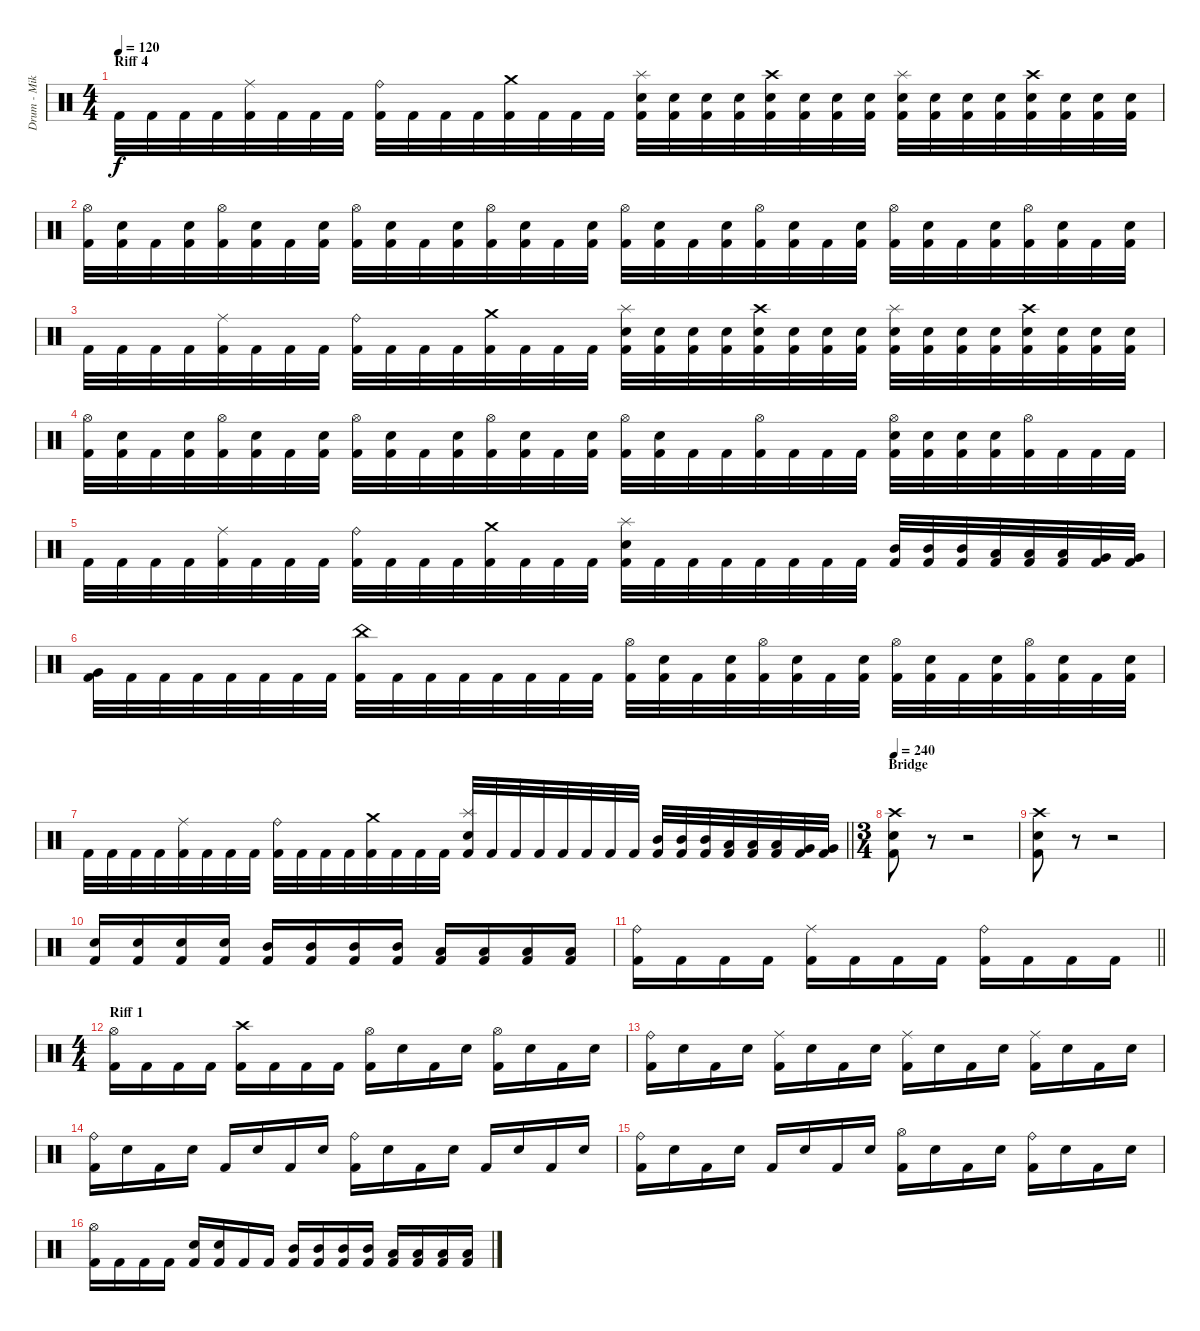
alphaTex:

\track ("Drum - Mike Collins" "Drum - Mik") {instrument percussion}
\staff {score}
\articulation defaults
\ts (4 4)
\section ("" "Riff 4")
\tempo 120
\clef neutral
\ks c "Kick (hit) 2".32{dy f} "Kick (hit) 2".32 "Kick (hit) 2".32 "Kick (hit) 2".32
("Ride (middle)" "Kick (hit) 2").32 "Kick (hit) 2".32 "Kick (hit) 2".32 "Kick (hit) 2".32 ("Ride (bell)" "Kick (hit) 2").32 "Kick (hit) 2".32 "Kick (hit) 2".32 "Kick (hit) 2".32 ("Crash medium (hit)" "Kick (hit) 2").32 "Kick (hit) 2".32 "Kick (hit) 2".32 "Kick (hit) 2".32 ("Splash (hit)" "Electric Snare (hit)" "Kick (hit) 2").32 ("Electric Snare (hit)" "Kick (hit) 2").32 ("Electric Snare (hit)" "Kick (hit) 2").32 ("Electric Snare (hit)" "Kick (hit) 2").32 ("Crash high (hit)" "Electric Snare (hit)" "Kick (hit) 2").32 ("Electric Snare (hit)" "Kick (hit) 2").32 ("Electric Snare (hit)" "Kick (hit) 2").32 ("Electric Snare (hit)" "Kick (hit) 2").32 ("Splash (hit)" "Electric Snare (hit)" "Kick (hit) 2").32 ("Electric Snare (hit)" "Kick (hit) 2").32 ("Electric Snare (hit)" "Kick (hit) 2").32 ("Electric Snare (hit)" "Kick (hit) 2").32 ("Crash high (hit)" "Electric Snare (hit)" "Kick (hit) 2").32 ("Electric Snare (hit)" "Kick (hit) 2").32 ("Electric Snare (hit)" "Kick (hit) 2").32 ("Electric Snare (hit)" "Kick (hit) 2").32 |
("Hi-Hat (open)" "Kick (hit) 2").32 ("Electric Snare (hit)" "Kick (hit) 2").32 "Kick (hit) 2".32 ("Electric Snare (hit)" "Kick (hit) 2").32 ("Hi-Hat (open)" "Kick (hit) 2").32 ("Electric Snare (hit)" "Kick (hit) 2").32 "Kick (hit) 2".32 ("Electric Snare (hit)" "Kick (hit) 2").32 ("Hi-Hat (open)" "Kick (hit) 2").32 ("Electric Snare (hit)" "Kick (hit) 2").32 "Kick (hit) 2".32 ("Electric Snare (hit)" "Kick (hit) 2").32 ("Hi-Hat (open)" "Kick (hit) 2").32 ("Electric Snare (hit)" "Kick (hit) 2").32 "Kick (hit) 2".32 ("Electric Snare (hit)" "Kick (hit) 2").32 ("Hi-Hat (open)" "Kick (hit) 2").32 ("Electric Snare (hit)" "Kick (hit) 2").32 "Kick (hit) 2".32 ("Electric Snare (hit)" "Kick (hit) 2").32 ("Hi-Hat (open)" "Kick (hit) 2").32 ("Electric Snare (hit)" "Kick (hit) 2").32 "Kick (hit) 2".32 ("Electric Snare (hit)" "Kick (hit) 2").32 ("Hi-Hat (open)" "Kick (hit) 2").32 ("Electric Snare (hit)" "Kick (hit) 2").32 "Kick (hit) 2".32 ("Electric Snare (hit)" "Kick (hit) 2").32 ("Hi-Hat (open)" "Kick (hit) 2").32 ("Electric Snare (hit)" "Kick (hit) 2").32 "Kick (hit) 2".32 ("Electric Snare (hit)" "Kick (hit) 2").32 |
"Kick (hit) 2".32 "Kick (hit) 2".32 "Kick (hit) 2".32 "Kick (hit) 2".32 ("Ride (middle)" "Kick (hit) 2").32 "Kick (hit) 2".32 "Kick (hit) 2".32 "Kick (hit) 2".32 ("Ride (bell)" "Kick (hit) 2").32 "Kick (hit) 2".32 "Kick (hit) 2".32 "Kick (hit) 2".32 ("Crash medium (hit)" "Kick (hit) 2").32 "Kick (hit) 2".32 "Kick (hit) 2".32 "Kick (hit) 2".32 ("Splash (hit)" "Electric Snare (hit)" "Kick (hit) 2").32 ("Electric Snare (hit)" "Kick (hit) 2").32 ("Electric Snare (hit)" "Kick (hit) 2").32 ("Electric Snare (hit)" "Kick (hit) 2").32 ("Crash high (hit)" "Electric Snare (hit)" "Kick (hit) 2").32 ("Electric Snare (hit)" "Kick (hit) 2").32 ("Electric Snare (hit)" "Kick (hit) 2").32 ("Electric Snare (hit)" "Kick (hit) 2").32 ("Splash (hit)" "Electric Snare (hit)" "Kick (hit) 2").32 ("Electric Snare (hit)" "Kick (hit) 2").32 ("Electric Snare (hit)" "Kick (hit) 2").32 ("Electric Snare (hit)" "Kick (hit) 2").32 ("Crash high (hit)" "Electric Snare (hit)" "Kick (hit) 2").32 ("Electric Snare (hit)" "Kick (hit) 2").32 ("Electric Snare (hit)" "Kick (hit) 2").32 ("Electric Snare (hit)" "Kick (hit) 2").32 |
("Hi-Hat (open)" "Kick (hit) 2").32 ("Electric Snare (hit)" "Kick (hit) 2").32 "Kick (hit) 2".32 ("Electric Snare (hit)" "Kick (hit) 2").32 ("Hi-Hat (open)" "Kick (hit) 2").32 ("Electric Snare (hit)" "Kick (hit) 2").32 "Kick (hit) 2".32 ("Electric Snare (hit)" "Kick (hit) 2").32 ("Hi-Hat (open)" "Kick (hit) 2").32 ("Electric Snare (hit)" "Kick (hit) 2").32 "Kick (hit) 2".32 ("Electric Snare (hit)" "Kick (hit) 2").32 ("Hi-Hat (open)" "Kick (hit) 2").32 ("Electric Snare (hit)" "Kick (hit) 2").32 "Kick (hit) 2".32 ("Electric Snare (hit)" "Kick (hit) 2").32 ("Hi-Hat (open)" "Kick (hit) 2").32 ("Electric Snare (hit)" "Kick (hit) 2").32 "Kick (hit) 2".32 "Kick (hit) 2".32 ("Hi-Hat (open)" "Kick (hit) 2").32 "Kick (hit) 2".32 "Kick (hit) 2".32 "Kick (hit) 2".32 ("Hi-Hat (open)" "Electric Snare (hit)" "Kick (hit) 2").32 ("Electric Snare (hit)" "Kick (hit) 2").32 ("Electric Snare (hit)" "Kick (hit) 2").32 ("Electric Snare (hit)" "Kick (hit) 2").32 ("Hi-Hat (open)" "Kick (hit) 2").32 "Kick (hit) 2".32 "Kick (hit) 2".32 "Kick (hit) 2".32 |
"Kick (hit) 2".32 "Kick (hit) 2".32 "Kick (hit) 2".32 "Kick (hit) 2".32 ("Ride (middle)" "Kick (hit) 2").32 "Kick (hit) 2".32 "Kick (hit) 2".32 "Kick (hit) 2".32 ("Ride (bell)" "Kick (hit) 2").32 "Kick (hit) 2".32 "Kick (hit) 2".32 "Kick (hit) 2".32 ("Crash medium (hit)" "Kick (hit) 2").32 "Kick (hit) 2".32 "Kick (hit) 2".32 "Kick (hit) 2".32 ("Splash (hit)" "Electric Snare (hit)" "Kick (hit) 2").32{beam Down} "Kick (hit) 2".32{beam Down} "Kick (hit) 2".32{beam Down} "Kick (hit) 2".32{beam Down} "Kick (hit) 2".32{beam Down} "Kick (hit) 2".32{beam Down} "Kick (hit) 2".32{beam Down} "Kick (hit) 2".32{beam Down} ("Mid Tom (hit)" "Kick (hit) 2").32 ("Mid Tom (hit)" "Kick (hit) 2").32 ("Mid Tom (hit)" "Kick (hit) 2").32 ("Low Tom (hit)" "Kick (hit) 2").32 ("Low Tom (hit)" "Kick (hit) 2").32 ("Low Tom (hit)" "Kick (hit) 2").32 ("Very Low Tom (hit)" "Kick (hit) 2").32 ("Very Low Tom (hit)" "Kick (hit) 2").32 |
("Very Low Tom (hit)" "Kick (hit) 2").32{beam Down} "Kick (hit) 2".32{beam Down} "Kick (hit) 2".32{beam Down} "Kick (hit) 2".32{beam Down} "Kick (hit) 2".32{beam Down} "Kick (hit) 2".32{beam Down} "Kick (hit) 2".32{beam Down} "Kick (hit) 2".32{beam Down} ("China (hit)" "Kick (hit) 2").32 "Kick (hit) 2".32 "Kick (hit) 2".32 "Kick (hit) 2".32 "Kick (hit) 2".32 "Kick (hit) 2".32 "Kick (hit) 2".32 "Kick (hit) 2".32 ("Hi-Hat (open)" "Kick (hit) 2").32 ("Electric Snare (hit)" "Kick (hit) 2").32 "Kick (hit) 2".32 ("Electric Snare (hit)" "Kick (hit) 2").32 ("Hi-Hat (open)" "Kick (hit) 2").32 ("Electric Snare (hit)" "Kick (hit) 2").32 "Kick (hit) 2".32 ("Electric Snare (hit)" "Kick (hit) 2").32 ("Hi-Hat (open)" "Kick (hit) 2").32 ("Electric Snare (hit)" "Kick (hit) 2").32 "Kick (hit) 2".32 ("Electric Snare (hit)" "Kick (hit) 2").32 ("Hi-Hat (open)" "Kick (hit) 2").32 ("Electric Snare (hit)" "Kick (hit) 2").32 "Kick (hit) 2".32 ("Electric Snare (hit)" "Kick (hit) 2").32 |
\barLineRight lightlight "Kick (hit) 2".32 "Kick (hit) 2".32 "Kick (hit) 2".32 "Kick (hit) 2".32
("Ride (middle)" "Kick (hit) 2").32 "Kick (hit) 2".32 "Kick (hit) 2".32 "Kick (hit) 2".32 ("Ride (bell)" "Kick (hit) 2").32 "Kick (hit) 2".32 "Kick (hit) 2".32 "Kick (hit) 2".32 ("Crash medium (hit)" "Kick (hit) 2").32 "Kick (hit) 2".32 "Kick (hit) 2".32 "Kick (hit) 2".32 ("Splash (hit)" "Electric Snare (hit)" "Kick (hit) 2").32 "Kick (hit) 2".32 "Kick (hit) 2".32 "Kick (hit) 2".32 "Kick (hit) 2".32 "Kick (hit) 2".32 "Kick (hit) 2".32 "Kick (hit) 2".32 ("Mid Tom (hit)" "Kick (hit) 2").32 ("Mid Tom (hit)" "Kick (hit) 2").32 ("Mid Tom (hit)" "Kick (hit) 2").32 ("Low Tom (hit)" "Kick (hit) 2").32 ("Low Tom (hit)" "Kick (hit) 2").32 ("Low Tom (hit)" "Kick (hit) 2").32 ("Very Low Tom (hit)" "Kick (hit) 2").32 ("Very Low Tom (hit)" "Kick (hit) 2").32 |
\ts (3 4)
\section ("" "Bridge")
\tempo 240
("Crash high (hit)" "Electric Snare (hit)" "Kick (hit) 2").8 r.8 r.2 |
("Crash high (hit)" "Electric Snare (hit)" "Kick (hit) 2").8 r.8 r.2 |
("Electric Snare (hit)" "Kick (hit) 2").16 ("Electric Snare (hit)" "Kick (hit) 2").16 ("Electric Snare (hit)" "Kick (hit) 2").16 ("Electric Snare (hit)" "Kick (hit) 2").16 ("Mid Tom (hit)" "Kick (hit) 2").16 ("Mid Tom (hit)" "Kick (hit) 2").16 ("Mid Tom (hit)" "Kick (hit) 2").16 ("Mid Tom (hit)" "Kick (hit) 2").16 ("Low Tom (hit)" "Kick (hit) 2").16 ("Low Tom (hit)" "Kick (hit) 2").16 ("Low Tom (hit)" "Kick (hit) 2").16 ("Low Tom (hit)" "Kick (hit) 2").16 |
\barLineRight lightlight
("Ride (bell)" "Kick (hit) 2").16 "Kick (hit) 2".16 "Kick (hit) 2".16 "Kick (hit) 2".16 ("Ride (middle)" "Kick (hit) 2").16 "Kick (hit) 2".16 "Kick (hit) 2".16 "Kick (hit) 2".16 ("Ride (bell)" "Kick (hit) 2").16 "Kick (hit) 2".16 "Kick (hit) 2".16 "Kick (hit) 2".16 |
\ts (4 4)
\section ("" "Riff 1")
("Hi-Hat (open)" "Kick (hit) 2").16 "Kick (hit) 2".16 "Kick (hit) 2".16 "Kick (hit) 2".16 ("Crash high (hit)" "Kick (hit) 2").16 "Kick (hit) 2".16 "Kick (hit) 2".16 "Kick (hit) 2".16 ("Hi-Hat (open)" "Kick (hit) 2").16 "Electric Snare (hit)".16 "Kick (hit) 2".16 "Electric Snare (hit)".16 ("Hi-Hat (open)" "Kick (hit) 2").16 "Electric Snare (hit)".16 "Kick (hit) 2".16 "Electric Snare (hit)".16 |
("Ride (bell)" "Kick (hit) 2").16 "Electric Snare (hit)".16 "Kick (hit) 2".16 "Electric Snare (hit)".16 ("Ride (middle)" "Kick (hit) 2").16 "Electric Snare (hit)".16 "Kick (hit) 2".16 "Electric Snare (hit)".16 ("Ride (middle)" "Kick (hit) 2").16 "Electric Snare (hit)".16 "Kick (hit) 2".16 "Electric Snare (hit)".16 ("Ride (middle)" "Kick (hit) 2").16 "Electric Snare (hit)".16 "Kick (hit) 2".16 "Electric Snare (hit)".16 |
("Ride (bell)" "Kick (hit) 2").16 "Electric Snare (hit)".16 "Kick (hit) 2".16 "Electric Snare (hit)".16 "Kick (hit) 2".16 "Electric Snare (hit)".16 "Kick (hit) 2".16 "Electric Snare (hit)".16 ("Ride (bell)" "Kick (hit) 2").16 "Electric Snare (hit)".16 "Kick (hit) 2".16 "Electric Snare (hit)".16 "Kick (hit) 2".16 "Electric Snare (hit)".16 "Kick (hit) 2".16 "Electric Snare (hit)".16 |
("Ride (bell)" "Kick (hit) 2").16 "Electric Snare (hit)".16 "Kick (hit) 2".16 "Electric Snare (hit)".16 "Kick (hit) 2".16 "Electric Snare (hit)".16 "Kick (hit) 2".16 "Electric Snare (hit)".16 ("Hi-Hat (open)" "Kick (hit) 2").16 "Electric Snare (hit)".16 "Kick (hit) 2".16 "Electric Snare (hit)".16 ("Ride (bell)" "Kick (hit) 2").16 "Electric Snare (hit)".16 "Kick (hit) 2".16 "Electric Snare (hit)".16 |
("Hi-Hat (open)" "Kick (hit) 2").16 "Kick (hit) 2".16 "Kick (hit) 2".16 "Kick (hit) 2".16 ("Electric Snare (hit)" "Kick (hit) 2").16 ("Electric Snare (hit)" "Kick (hit) 2").16 "Kick (hit) 2".16 "Kick (hit) 2".16 ("Mid Tom (hit)" "Kick (hit) 2").16 ("Mid Tom (hit)" "Kick (hit) 2").16 ("Mid Tom (hit)" "Kick (hit) 2").16 ("Mid Tom (hit)" "Kick (hit) 2").16 ("Low Tom (hit)" "Kick (hit) 2").16 ("Low Tom (hit)" "Kick (hit) 2").16 ("Low Tom (hit)" "Kick (hit) 2").16 ("Low Tom (hit)" "Kick (hit) 2").16
